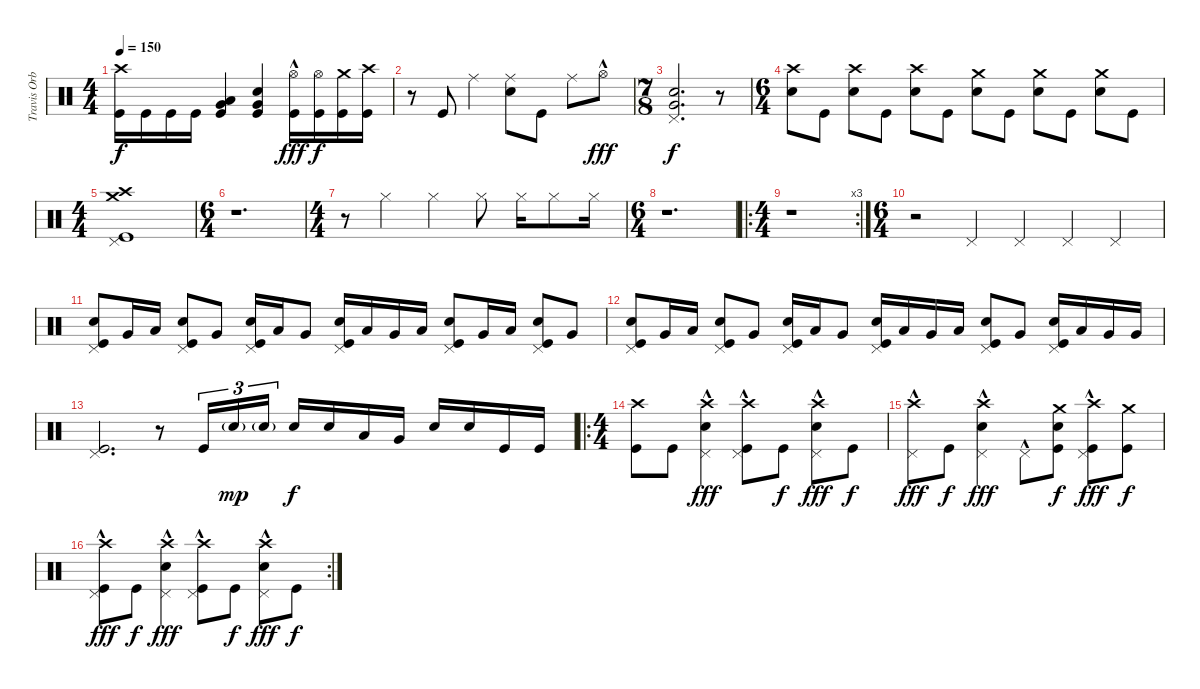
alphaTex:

\track ("Travis Orbin" "Travis Orb") {instrument percussion}
\staff {score}
\articulation defaults
\ts (4 4)
\tempo 150
\clef neutral
\ks c
("Crash high (hit)" "Kick (hit)").16{dy f} "Kick (hit)".16 "Kick (hit)".16 "Kick (hit)".16 ("Low Tom (hit)" "Very Low Tom (hit)" "Kick (hit)").4 ("Electric Snare (hit)" "Very Low Tom (hit)" "Kick (hit)").4 ("Hi-Hat (open)"{hac} "Kick (hit)").16{dy fff} ("Hi-Hat (open)" "Kick (hit)").16{dy f} ("Crash medium (hit)" "Kick (hit)").16 ("Crash high (hit)" "Kick (hit)").16 |
r.8 "Kick (hit)".8 "Ride (middle)".4 ("Ride (middle)" "Electric Snare (hit)").8 "Kick (hit)".8 "Ride (middle)".8 "Hi-Hat (open)"{hac}.8{dy fff} |
\ts (7 8)
("Electric Snare (hit)" "Very Low Tom (hit)" "Pedal Hi-Hat (hit)").2{d dy f} r.8 |
\ts (6 4)
("Crash high (hit)" "Electric Snare (hit)").8 "Kick (hit)".8 ("Crash high (hit)" "Electric Snare (hit)").8 "Kick (hit)".8 ("Crash high (hit)" "Electric Snare (hit)").8 "Kick (hit)".8 ("Crash medium (hit)" "Electric Snare (hit)").8 "Kick (hit)".8 ("Crash medium (hit)" "Electric Snare (hit)").8 "Kick (hit)".8 ("Crash medium (hit)" "Electric Snare (hit)").8 "Kick (hit)".8 |
\ts (4 4)
("Crash high (hit)" "Crash medium (hit)" "Kick (hit)" "Pedal Hi-Hat (hit)").1 |
\ts (6 4)
r.1{d} |
\ts (4 4)
r.8 "Hi-Hat (closed)".4 "Hi-Hat (closed)".4 "Hi-Hat (closed)".8 "Hi-Hat (closed)".16 "Hi-Hat (closed)".8 "Hi-Hat (closed)".16 |
\ts (6 4)
r.1{d} |
\ro
\rc 3
\ts (4 4)
r.1 |
\ts (6 4)
r.2 "Pedal Hi-Hat (hit)".4 "Pedal Hi-Hat (hit)".4 "Pedal Hi-Hat (hit)".4 "Pedal Hi-Hat (hit)".4 |
("Electric Snare (hit)" "Kick (hit)" "Pedal Hi-Hat (hit)").8 "Very Low Tom (hit)".16 "Low Tom (hit)".16 ("Electric Snare (hit)" "Kick (hit)" "Pedal Hi-Hat (hit)").8 "Very Low Tom (hit)".8 ("Electric Snare (hit)" "Kick (hit)" "Pedal Hi-Hat (hit)").16 "Low Tom (hit)".16 "Very Low Tom (hit)".8 ("Electric Snare (hit)" "Kick (hit)" "Pedal Hi-Hat (hit)").16 "Low Tom (hit)".16 "Very Low Tom (hit)".16 "Low Tom (hit)".16 ("Electric Snare (hit)" "Kick (hit)" "Pedal Hi-Hat (hit)").8 "Very Low Tom (hit)".16 "Low Tom (hit)".16 ("Electric Snare (hit)" "Kick (hit)" "Pedal Hi-Hat (hit)").8 "Very Low Tom (hit)".8 |
("Electric Snare (hit)" "Kick (hit)" "Pedal Hi-Hat (hit)").8 "Very Low Tom (hit)".16 "Low Tom (hit)".16 ("Electric Snare (hit)" "Kick (hit)" "Pedal Hi-Hat (hit)").8 "Very Low Tom (hit)".8 ("Electric Snare (hit)" "Kick (hit)" "Pedal Hi-Hat (hit)").16 "Low Tom (hit)".16 "Very Low Tom (hit)".8 ("Electric Snare (hit)" "Kick (hit)" "Pedal Hi-Hat (hit)").16 "Low Tom (hit)".16 "Very Low Tom (hit)".16 "Low Tom (hit)".16 ("Electric Snare (hit)" "Kick (hit)" "Pedal Hi-Hat (hit)").8 "Very Low Tom (hit)".8 ("Electric Snare (hit)" "Kick (hit)" "Pedal Hi-Hat (hit)").16 "Low Tom (hit)".16 "Very Low Tom (hit)".16 "Very Low Tom (hit)".16 |
("Kick (hit)" "Pedal Hi-Hat (hit)").2{d} r.8 "Kick (hit)".16{tu (3 2)} "Electric Snare (hit)"{g}.16{tu (3 2) dy mp} "Electric Snare (hit)"{g}.16{tu (3 2) beam splitsecondary} "Electric Snare (hit)".16{dy f} "Electric Snare (hit)".16 "Low Tom (hit)".16 "Very Low Tom (hit)".16 "Electric Snare (hit)".16 "Electric Snare (hit)".16 "Kick (hit)".16 "Kick (hit)".16 |
\ro
\ts (4 4)
("Crash high (hit)" "Kick (hit)").8 "Kick (hit)".8 ("Crash high (hit)" "Electric Snare (hit)" "Pedal Hi-Hat (hit)"{hac}).4{dy fff} ("Crash high (hit)" "Kick (hit)" "Pedal Hi-Hat (hit)"{hac}).8 "Kick (hit)".8{dy f} ("Crash high (hit)" "Electric Snare (hit)" "Pedal Hi-Hat (hit)"{hac}).8{dy fff} "Kick (hit)".8{dy f} |
("Crash high (hit)" "Pedal Hi-Hat (hit)"{hac}).8{dy fff} "Kick (hit)".8{dy f} ("Crash high (hit)" "Electric Snare (hit)" "Pedal Hi-Hat (hit)"{hac}).4{dy fff} "Pedal Hi-Hat (hit)"{hac}.8 ("Crash medium (hit)" "Electric Snare (hit)" "Kick (hit)").8{dy f} ("Crash high (hit)" "Kick (hit)" "Pedal Hi-Hat (hit)"{hac}).8{dy fff} ("Crash medium (hit)" "Kick (hit)").8{dy f} |
\rc 2
("Crash high (hit)" "Kick (hit)" "Pedal Hi-Hat (hit)"{hac}).8{dy fff} "Kick (hit)".8{dy f} ("Crash high (hit)" "Electric Snare (hit)" "Pedal Hi-Hat (hit)"{hac}).4{dy fff} ("Crash high (hit)" "Kick (hit)" "Pedal Hi-Hat (hit)"{hac}).8 "Kick (hit)".8{dy f} ("Crash high (hit)" "Electric Snare (hit)" "Pedal Hi-Hat (hit)"{hac}).8{dy fff} "Kick (hit)".8{dy f}
